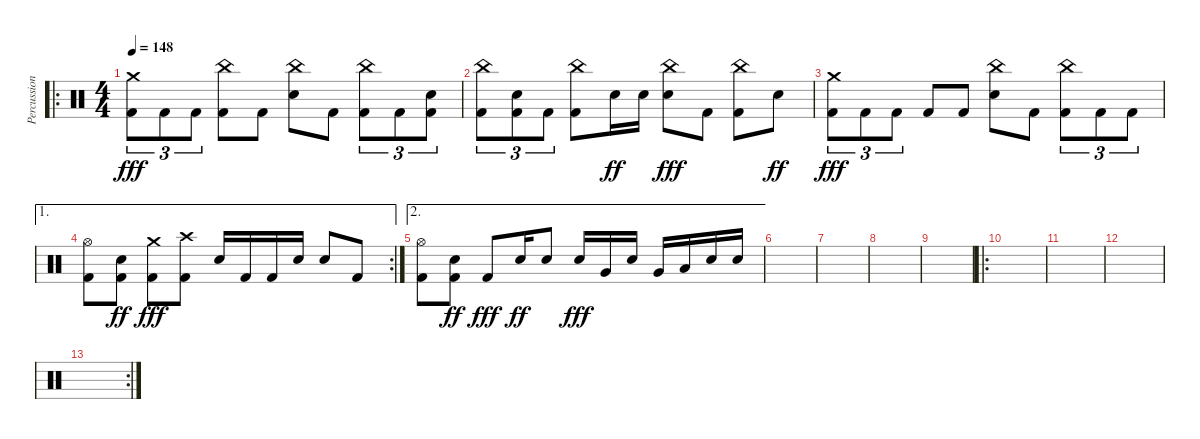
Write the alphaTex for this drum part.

\track ("Percussion" "Percussion") {instrument percussion}
\staff {score}
\articulation defaults
\ro
\ts (4 4)
\tempo 148
\clef neutral
\ks c
("Kick (hit) 2" "Crash medium (hit)").8{tu (3 2) dy fff} "Kick (hit) 2".8{tu (3 2)} "Kick (hit) 2".8{tu (3 2)} ("Kick (hit) 2" "China (hit)").8 "Kick (hit) 2".8 ("Electric Snare (hit)" "China (hit)").8 "Kick (hit) 2".8 ("Kick (hit) 2" "China (hit)").8{tu (3 2)} "Kick (hit) 2".8{tu (3 2)} ("Kick (hit) 2" "Electric Snare (hit)").8{tu (3 2)} |
("Kick (hit) 2" "China (hit)").8{tu (3 2)} ("Kick (hit) 2" "Electric Snare (hit)").8{tu (3 2)} "Kick (hit) 2".8{tu (3 2)} ("Kick (hit) 2" "China (hit)").8 "Electric Snare (hit)".16{dy ff} "Electric Snare (hit)".16 ("Electric Snare (hit)" "China (hit)").8{dy fff} "Kick (hit) 2".8 ("Kick (hit) 2" "China (hit)").8 "Electric Snare (hit)".8{dy ff} |
("Kick (hit) 2" "Crash medium (hit)").8{tu (3 2) dy fff} "Kick (hit) 2".8{tu (3 2)} "Kick (hit) 2".8{tu (3 2)} "Kick (hit) 2".8 "Kick (hit) 2".8 ("Electric Snare (hit)" "China (hit)").8 "Kick (hit) 2".8 ("Kick (hit) 2" "China (hit)").8{tu (3 2)} "Kick (hit) 2".8{tu (3 2)} "Kick (hit) 2".8{tu (3 2)} |
\ae 1
\rc 2
("Kick (hit) 2" "Hi-Hat (open)").8 ("Kick (hit) 2" "Electric Snare (hit)").8{dy ff} ("Crash medium (hit)" "Kick (hit) 2").8{dy fff} ("Crash high (hit)" "Kick (hit) 2").8 "Electric Snare (hit)".16 "Kick (hit) 2".16 "Kick (hit) 2".16 "Electric Snare (hit)".16 "Electric Snare (hit)".8 "Kick (hit) 2".8 |
\ae 2
("Kick (hit) 2" "Hi-Hat (open)").8 ("Kick (hit) 2" "Electric Snare (hit)").8{dy ff} "Kick (hit) 2".8{dy fff} "Electric Snare (hit)".16{dy ff} "Electric Snare (hit)".8 "Electric Snare (hit)".16{dy fff} "Very Low Tom (hit)".16 "Electric Snare (hit)".16 "Very Low Tom (hit)".16 "Low Floor Tom (hit)".16 "Electric Snare (hit)".16 "Electric Snare (hit)".16 |
|
|
|
|
\ro
|
|
|
\rc 2
